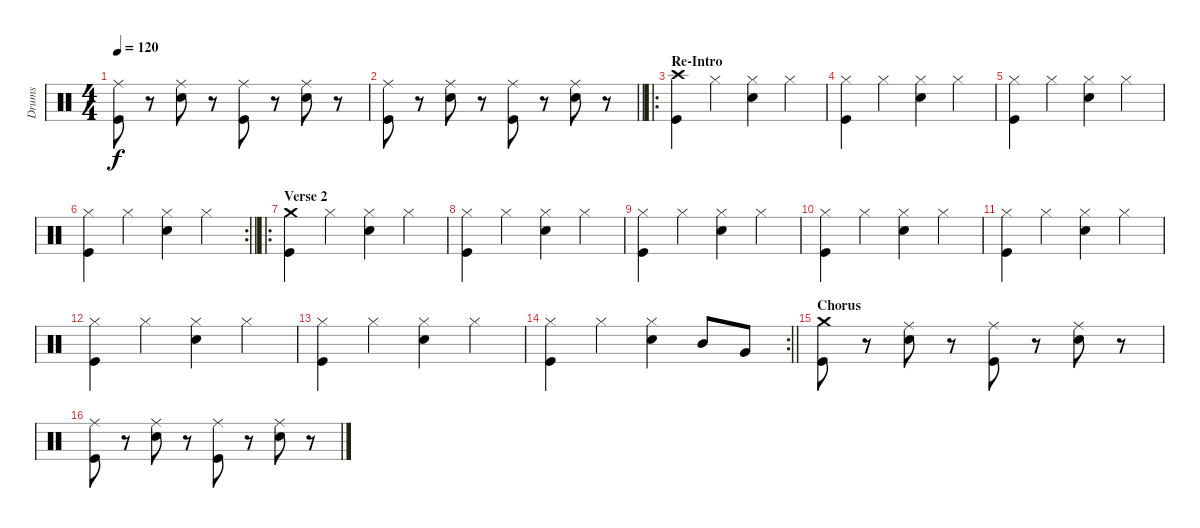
\track ("Drums" "Drums") {instrument percussion}
\staff {score}
\articulation defaults
\ts (4 4)
\tempo 120
\clef neutral
\ks c
("Ride (middle)" "Kick (hit)").8{dy f} r.8 ("Ride (middle)" "Electric Snare (hit)").8 r.8 ("Ride (middle)" "Kick (hit)").8 r.8 ("Ride (middle)" "Electric Snare (hit)").8 r.8 |
\barLineRight lightlight
("Ride (middle)" "Kick (hit)").8 r.8 ("Ride (middle)" "Electric Snare (hit)").8 r.8 ("Ride (middle)" "Kick (hit)").8 r.8 ("Ride (middle)" "Electric Snare (hit)").8 r.8 |
\ro
\section ("" "Re-Intro")
("Crash high (hit)" "Kick (hit)").4 "Hi-Hat (closed)".4 ("Hi-Hat (closed)" "Electric Snare (hit)").4 "Hi-Hat (closed)".4 |
("Hi-Hat (closed)" "Kick (hit)").4 "Hi-Hat (closed)".4 ("Hi-Hat (closed)" "Electric Snare (hit)").4 "Hi-Hat (closed)".4 |
("Hi-Hat (closed)" "Kick (hit)").4 "Hi-Hat (closed)".4 ("Hi-Hat (closed)" "Electric Snare (hit)").4 "Hi-Hat (closed)".4 |
\rc 2
\barLineRight lightlight
("Hi-Hat (closed)" "Kick (hit)").4 "Hi-Hat (closed)".4 ("Hi-Hat (closed)" "Electric Snare (hit)").4 "Hi-Hat (closed)".4 |
\ro
\section ("" "Verse 2")
("Crash medium (hit)" "Kick (hit)").4 "Hi-Hat (closed)".4 ("Hi-Hat (closed)" "Electric Snare (hit)").4 "Hi-Hat (closed)".4 |
("Hi-Hat (closed)" "Kick (hit)").4 "Hi-Hat (closed)".4 ("Hi-Hat (closed)" "Electric Snare (hit)").4 "Hi-Hat (closed)".4 |
("Hi-Hat (closed)" "Kick (hit)").4 "Hi-Hat (closed)".4 ("Hi-Hat (closed)" "Electric Snare (hit)").4 "Hi-Hat (closed)".4 |
("Hi-Hat (closed)" "Kick (hit)").4 "Hi-Hat (closed)".4 ("Hi-Hat (closed)" "Electric Snare (hit)").4 "Hi-Hat (closed)".4 |
("Hi-Hat (closed)" "Kick (hit)").4 "Hi-Hat (closed)".4 ("Hi-Hat (closed)" "Electric Snare (hit)").4 "Hi-Hat (closed)".4 |
("Hi-Hat (closed)" "Kick (hit)").4 "Hi-Hat (closed)".4 ("Hi-Hat (closed)" "Electric Snare (hit)").4 "Hi-Hat (closed)".4 |
("Hi-Hat (closed)" "Kick (hit)").4 "Hi-Hat (closed)".4 ("Hi-Hat (closed)" "Electric Snare (hit)").4 "Hi-Hat (closed)".4 |
\rc 2
\barLineRight lightlight
("Hi-Hat (closed)" "Kick (hit)").4 "Hi-Hat (closed)".4 ("Hi-Hat (closed)" "Electric Snare (hit)").4 "Mid Tom (hit)".8 "Very Low Tom (hit)".8 |
\section ("" "Chorus")
("Crash medium (hit)" "Kick (hit)").8 r.8 ("Ride (middle)" "Electric Snare (hit)").8 r.8 ("Ride (middle)" "Kick (hit)").8 r.8 ("Ride (middle)" "Electric Snare (hit)").8 r.8 |
("Ride (middle)" "Kick (hit)").8 r.8 ("Ride (middle)" "Electric Snare (hit)").8 r.8 ("Ride (middle)" "Kick (hit)").8 r.8 ("Ride (middle)" "Electric Snare (hit)").8 r.8
